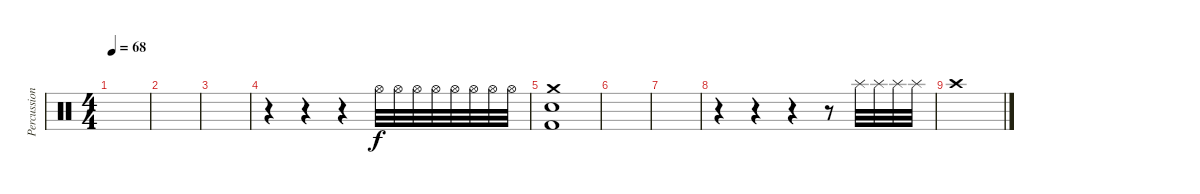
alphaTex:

\track ("Percussions" "Percussion") {instrument percussion}
\staff {score}
\articulation defaults
\ts (4 4)
\tempo 68
\clef neutral
\ks c
|
|
|
r.4 r.4 r.4 "Hi-Hat (open)".32 "Hi-Hat (open)".32 "Hi-Hat (open)".32 "Hi-Hat (open)".32 "Hi-Hat (open)".32 "Hi-Hat (open)".32 "Hi-Hat (open)".32 "Hi-Hat (open)".32 |
("Snare (hit) 2" "Crash medium (hit)" "Kick (hit) 2").1 |
|
|
r.4 r.4 r.4 r.8 "Splash (hit)".32 "Splash (hit)".32 "Splash (hit)".32 "Splash (hit)".32 |
"Crash high (hit)".1
